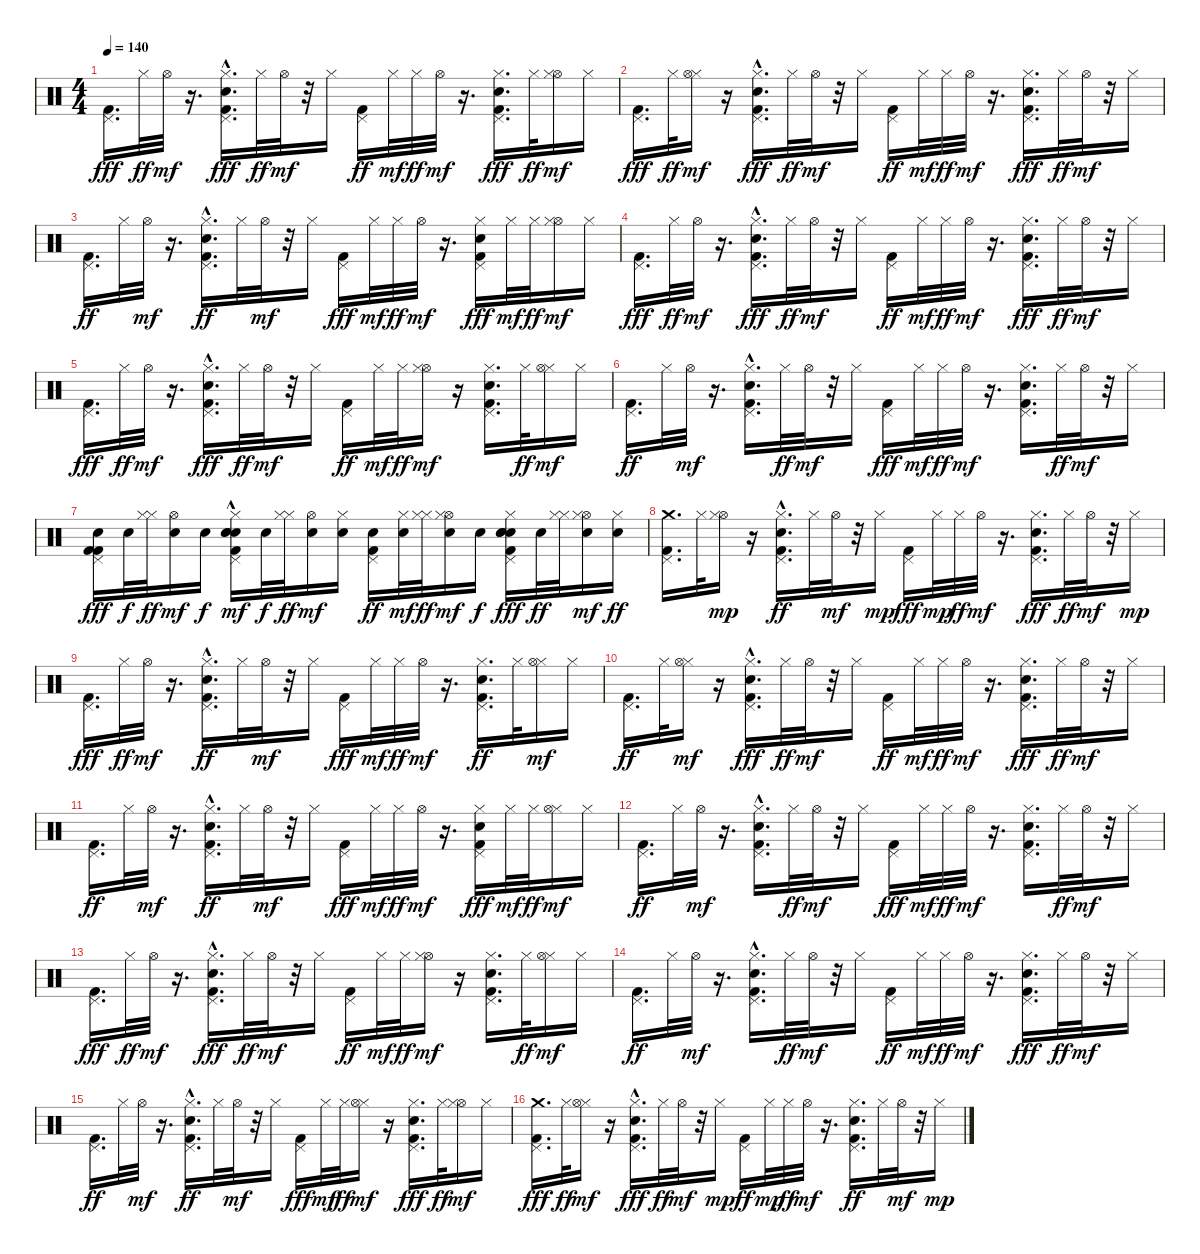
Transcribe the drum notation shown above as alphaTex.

\track "" {instrument percussion}
\staff {score}
\articulation defaults
\ts (4 4)
\tempo 140
\clef neutral
\ks c
("Pedal Hi-Hat (hit)" "Kick (hit) 2").16{d dy fff} "Hi-Hat (closed)".32{dy ff} "Hi-Hat (open)".32{dy mf} r.16{d} ("Hi-Hat (closed)" "Pedal Hi-Hat (hit)" "Kick (hit) 2" "Hand Clap (hit)"{hac}).16{d dy fff} "Hi-Hat (closed)".32{dy ff} "Hi-Hat (open)".32{dy mf} r.32 "Hi-Hat (closed)".16 ("Kick (hit) 2" "Pedal Hi-Hat (hit)").16{dy ff} "Hi-Hat (closed)".32{dy mf} "Hi-Hat (closed)".32{dy ff} "Hi-Hat (open)".32{dy mf} r.16{d} ("Hi-Hat (closed)" "Pedal Hi-Hat (hit)" "Kick (hit) 2" "Hand Clap (hit)").16{d dy fff} "Hi-Hat (closed)".32{dy ff} ("Hi-Hat (open)" "Hi-Hat (closed)").16{dy mf} "Hi-Hat (closed)".16 |
("Pedal Hi-Hat (hit)" "Kick (hit) 2").16{d dy fff} "Hi-Hat (closed)".32{dy ff} ("Hi-Hat (closed)" "Hi-Hat (open)").16{dy mf} r.16 ("Hi-Hat (closed)" "Pedal Hi-Hat (hit)" "Hand Clap (hit)"{hac} "Kick (hit) 2").16{d dy fff} "Hi-Hat (closed)".32{dy ff} "Hi-Hat (open)".32{dy mf} r.32 "Hi-Hat (closed)".16 ("Kick (hit) 2" "Pedal Hi-Hat (hit)").16{dy ff} "Hi-Hat (closed)".32{dy mf} "Hi-Hat (closed)".32{dy ff} "Hi-Hat (open)".32{dy mf} r.16{d} ("Hi-Hat (closed)" "Pedal Hi-Hat (hit)" "Hand Clap (hit)" "Kick (hit) 2").16{d dy fff} "Hi-Hat (closed)".32{dy ff} "Hi-Hat (open)".32{dy mf} r.32 "Hi-Hat (closed)".16 |
("Kick (hit) 2" "Pedal Hi-Hat (hit)").16{d dy ff} "Hi-Hat (closed)".32 "Hi-Hat (open)".32{dy mf} r.16{d} ("Hand Clap (hit)"{hac} "Hi-Hat (closed)" "Kick (hit) 2" "Pedal Hi-Hat (hit)").16{d dy ff} "Hi-Hat (closed)".32 "Hi-Hat (open)".32{dy mf} r.32 "Hi-Hat (closed)".16 ("Pedal Hi-Hat (hit)" "Kick (hit) 2").16{dy fff} "Hi-Hat (closed)".32{dy mf} "Hi-Hat (closed)".32{dy ff} "Hi-Hat (open)".32{dy mf} r.16{d} ("Hi-Hat (closed)" "Pedal Hi-Hat (hit)" "Hand Clap (hit)" "Kick (hit) 2").16{dy fff} "Hi-Hat (closed)".32{dy mf} "Hi-Hat (closed)".32{dy ff} ("Hi-Hat (open)" "Hi-Hat (closed)").16{dy mf} "Hi-Hat (closed)".16 |
("Pedal Hi-Hat (hit)" "Kick (hit) 2").16{d dy fff} "Hi-Hat (closed)".32{dy ff} "Hi-Hat (open)".32{dy mf} r.16{d} ("Pedal Hi-Hat (hit)" "Hi-Hat (closed)" "Kick (hit) 2" "Hand Clap (hit)"{hac}).16{d dy fff} "Hi-Hat (closed)".32{dy ff} "Hi-Hat (open)".32{dy mf} r.32 "Hi-Hat (closed)".16 ("Kick (hit) 2" "Pedal Hi-Hat (hit)").16{dy ff} "Hi-Hat (closed)".32{dy mf} "Hi-Hat (closed)".32{dy ff} "Hi-Hat (open)".32{dy mf} r.16{d} ("Pedal Hi-Hat (hit)" "Hi-Hat (closed)" "Kick (hit) 2" "Hand Clap (hit)").16{d dy fff} "Hi-Hat (closed)".32{dy ff} "Hi-Hat (open)".32{dy mf} r.32 "Hi-Hat (closed)".16 |
("Pedal Hi-Hat (hit)" "Kick (hit) 2").16{d dy fff} "Hi-Hat (closed)".32{dy ff} "Hi-Hat (open)".32{dy mf} r.16{d} ("Pedal Hi-Hat (hit)" "Hi-Hat (closed)" "Kick (hit) 2" "Hand Clap (hit)"{hac}).16{d dy fff} "Hi-Hat (closed)".32{dy ff} "Hi-Hat (open)".32{dy mf} r.32 "Hi-Hat (closed)".16 ("Kick (hit) 2" "Pedal Hi-Hat (hit)").16{dy ff} "Hi-Hat (closed)".32{dy mf} "Hi-Hat (closed)".32{dy ff} ("Hi-Hat (open)" "Hi-Hat (closed)").16{dy mf} r.16 ("Hand Clap (hit)" "Pedal Hi-Hat (hit)" "Kick (hit) 2" "Hi-Hat (closed)").16{d} "Hi-Hat (closed)".32{dy ff} ("Hi-Hat (closed)" "Hi-Hat (open)").16{dy mf} "Hi-Hat (closed)".16 |
("Kick (hit) 2" "Pedal Hi-Hat (hit)").16{d dy ff} "Hi-Hat (closed)".32 "Hi-Hat (open)".32{dy mf} r.16{d} ("Hand Clap (hit)"{hac} "Pedal Hi-Hat (hit)" "Kick (hit) 2" "Hi-Hat (closed)").16{d} "Hi-Hat (closed)".32{dy ff} "Hi-Hat (open)".32{dy mf} r.32 "Hi-Hat (closed)".16 ("Pedal Hi-Hat (hit)" "Kick (hit) 2").16{dy fff} "Hi-Hat (closed)".32{dy mf} "Hi-Hat (closed)".32{dy ff} "Hi-Hat (open)".32{dy mf} r.16{d} ("Hand Clap (hit)" "Pedal Hi-Hat (hit)" "Kick (hit) 2" "Hi-Hat (closed)").16{d} "Hi-Hat (closed)".32{dy ff} "Hi-Hat (open)".32{dy mf} r.32 "Hi-Hat (closed)".16 |
("Electric Snare (hit)" "Pedal Hi-Hat (hit)" "Kick (hit) 2" "Kick (hit) 2").16{dy fff} "Electric Snare (hit)".32{dy f} ("Hi-Hat (closed)" "Hi-Hat (closed)").32{dy ff} ("Hi-Hat (open)" "Electric Snare (hit)").16{dy mf} "Electric Snare (hit)".16{dy f} ("Electric Snare (hit)" "Snare (hit) 2" "Pedal Hi-Hat (hit)" "Kick (hit) 2" "Hi-Hat (closed)" "Hand Clap (hit)"{hac}).16{dy mf} "Electric Snare (hit)".32{dy f} ("Hi-Hat (closed)" "Hi-Hat (closed)").32{dy ff} ("Hi-Hat (open)" "Electric Snare (hit)").16{dy mf} ("Hi-Hat (closed)" "Electric Snare (hit)").16 ("Pedal Hi-Hat (hit)" "Kick (hit) 2" "Electric Snare (hit)").16{dy ff} ("Electric Snare (hit)" "Hi-Hat (closed)").32{dy mf} ("Hi-Hat (closed)" "Hi-Hat (closed)").32{dy ff} ("Electric Snare (hit)" "Hi-Hat (open)" "Hi-Hat (closed)").16{dy mf} "Electric Snare (hit)".16{dy f} ("Electric Snare (hit)" "Hand Clap (hit)" "Pedal Hi-Hat (hit)" "Hand Clap (hit)" "Hi-Hat (closed)" "Kick (hit) 2").16{dy fff} "Electric Snare (hit)".32{dy ff} ("Hi-Hat (closed)" "Hi-Hat (closed)").32 ("Electric Snare (hit)" "Hi-Hat (open)" "Hi-Hat (closed)").16{dy mf} ("Hi-Hat (closed)" "Electric Snare (hit)").16{dy ff} |
("Kick (hit) 2" "Crash medium (hit)" "Pedal Hi-Hat (hit)").16{d} "Hi-Hat (closed)".32 ("Hi-Hat (open)" "Hi-Hat (closed)").16{dy mp} r.16 ("Kick (hit) 2" "Hi-Hat (closed)" "Hand Clap (hit)"{hac} "Pedal Hi-Hat (hit)").16{d dy ff} "Hi-Hat (closed)".32 "Hi-Hat (open)".32{dy mf} r.32 "Hi-Hat (closed)".16{dy mp} ("Pedal Hi-Hat (hit)" "Kick (hit) 2").16{dy fff} "Hi-Hat (closed)".32{dy mp} "Hi-Hat (closed)".32{dy ff} "Hi-Hat (open)".32{dy mf} r.16{d} ("Pedal Hi-Hat (hit)" "Hand Clap (hit)" "Hi-Hat (closed)" "Kick (hit) 2").16{d dy fff} "Hi-Hat (closed)".32{dy ff} "Hi-Hat (open)".32{dy mf} r.32 "Hi-Hat (closed)".16{dy mp} |
("Pedal Hi-Hat (hit)" "Kick (hit) 2").16{d dy fff} "Hi-Hat (closed)".32{dy ff} "Hi-Hat (open)".32{dy mf} r.16{d} ("Hand Clap (hit)"{hac} "Hi-Hat (closed)" "Kick (hit) 2" "Pedal Hi-Hat (hit)").16{d dy ff} "Hi-Hat (closed)".32 "Hi-Hat (open)".32{dy mf} r.32 "Hi-Hat (closed)".16 ("Pedal Hi-Hat (hit)" "Kick (hit) 2").16{dy fff} "Hi-Hat (closed)".32{dy mf} "Hi-Hat (closed)".32{dy ff} "Hi-Hat (open)".32{dy mf} r.16{d} ("Hand Clap (hit)" "Hi-Hat (closed)" "Kick (hit) 2" "Pedal Hi-Hat (hit)").16{d dy ff} "Hi-Hat (closed)".32 ("Hi-Hat (closed)" "Hi-Hat (open)").16{dy mf} "Hi-Hat (closed)".16 |
("Kick (hit) 2" "Pedal Hi-Hat (hit)").16{d dy ff} "Hi-Hat (closed)".32 ("Hi-Hat (closed)" "Hi-Hat (open)").16{dy mf} r.16 ("Hi-Hat (closed)" "Pedal Hi-Hat (hit)" "Hand Clap (hit)"{hac} "Kick (hit) 2").16{d dy fff} "Hi-Hat (closed)".32{dy ff} "Hi-Hat (open)".32{dy mf} r.32 "Hi-Hat (closed)".16 ("Kick (hit) 2" "Pedal Hi-Hat (hit)").16{dy ff} "Hi-Hat (closed)".32{dy mf} "Hi-Hat (closed)".32{dy ff} "Hi-Hat (open)".32{dy mf} r.16{d} ("Hi-Hat (closed)" "Pedal Hi-Hat (hit)" "Hand Clap (hit)" "Kick (hit) 2").16{d dy fff} "Hi-Hat (closed)".32{dy ff} "Hi-Hat (open)".32{dy mf} r.32 "Hi-Hat (closed)".16 |
("Kick (hit) 2" "Pedal Hi-Hat (hit)").16{d dy ff} "Hi-Hat (closed)".32 "Hi-Hat (open)".32{dy mf} r.16{d} ("Hand Clap (hit)"{hac} "Hi-Hat (closed)" "Kick (hit) 2" "Pedal Hi-Hat (hit)").16{d dy ff} "Hi-Hat (closed)".32 "Hi-Hat (open)".32{dy mf} r.32 "Hi-Hat (closed)".16 ("Pedal Hi-Hat (hit)" "Kick (hit) 2").16{dy fff} "Hi-Hat (closed)".32{dy mf} "Hi-Hat (closed)".32{dy ff} "Hi-Hat (open)".32{dy mf} r.16{d} ("Hi-Hat (closed)" "Pedal Hi-Hat (hit)" "Hand Clap (hit)" "Kick (hit) 2").16{dy fff} "Hi-Hat (closed)".32{dy mf} "Hi-Hat (closed)".32{dy ff} ("Hi-Hat (closed)" "Hi-Hat (open)").16{dy mf} "Hi-Hat (closed)".16 |
("Kick (hit) 2" "Pedal Hi-Hat (hit)").16{d dy ff} "Hi-Hat (closed)".32 "Hi-Hat (open)".32{dy mf} r.16{d} ("Hand Clap (hit)"{hac} "Pedal Hi-Hat (hit)" "Kick (hit) 2" "Hi-Hat (closed)").16{d} "Hi-Hat (closed)".32{dy ff} "Hi-Hat (open)".32{dy mf} r.32 "Hi-Hat (closed)".16 ("Pedal Hi-Hat (hit)" "Kick (hit) 2").16{dy fff} "Hi-Hat (closed)".32{dy mf} "Hi-Hat (closed)".32{dy ff} "Hi-Hat (open)".32{dy mf} r.16{d} ("Hand Clap (hit)" "Pedal Hi-Hat (hit)" "Kick (hit) 2" "Hi-Hat (closed)").16{d} "Hi-Hat (closed)".32{dy ff} "Hi-Hat (open)".32{dy mf} r.32 "Hi-Hat (closed)".16 |
("Pedal Hi-Hat (hit)" "Kick (hit) 2").16{d dy fff} "Hi-Hat (closed)".32{dy ff} "Hi-Hat (open)".32{dy mf} r.16{d} ("Pedal Hi-Hat (hit)" "Hi-Hat (closed)" "Kick (hit) 2" "Hand Clap (hit)"{hac}).16{d dy fff} "Hi-Hat (closed)".32{dy ff} "Hi-Hat (open)".32{dy mf} r.32 "Hi-Hat (closed)".16 ("Kick (hit) 2" "Pedal Hi-Hat (hit)").16{dy ff} "Hi-Hat (closed)".32{dy mf} "Hi-Hat (closed)".32{dy ff} ("Hi-Hat (open)" "Hi-Hat (closed)").16{dy mf} r.16 ("Hand Clap (hit)" "Pedal Hi-Hat (hit)" "Kick (hit) 2" "Hi-Hat (closed)").16{d} "Hi-Hat (closed)".32{dy ff} ("Hi-Hat (closed)" "Hi-Hat (open)").16{dy mf} "Hi-Hat (closed)".16 |
("Kick (hit) 2" "Pedal Hi-Hat (hit)").16{d dy ff} "Hi-Hat (closed)".32 "Hi-Hat (open)".32{dy mf} r.16{d} ("Hand Clap (hit)"{hac} "Pedal Hi-Hat (hit)" "Kick (hit) 2" "Hi-Hat (closed)").16{d} "Hi-Hat (closed)".32{dy ff} "Hi-Hat (open)".32{dy mf} r.32 "Hi-Hat (closed)".16 ("Kick (hit) 2" "Pedal Hi-Hat (hit)").16{dy ff} "Hi-Hat (closed)".32{dy mf} "Hi-Hat (closed)".32{dy ff} "Hi-Hat (open)".32{dy mf} r.16{d} ("Pedal Hi-Hat (hit)" "Hi-Hat (closed)" "Hand Clap (hit)" "Kick (hit) 2").16{d dy fff} "Hi-Hat (closed)".32{dy ff} "Hi-Hat (open)".32{dy mf} r.32 "Hi-Hat (closed)".16 |
("Kick (hit) 2" "Pedal Hi-Hat (hit)").16{d dy ff} "Hi-Hat (closed)".32 "Hi-Hat (open)".32{dy mf} r.16{d} ("Kick (hit) 2" "Hi-Hat (closed)" "Hand Clap (hit)"{hac} "Pedal Hi-Hat (hit)").16{d dy ff} "Hi-Hat (closed)".32 "Hi-Hat (open)".32{dy mf} r.32 "Hi-Hat (closed)".16 ("Pedal Hi-Hat (hit)" "Kick (hit) 2").16{dy fff} "Hi-Hat (closed)".32{dy mf} "Hi-Hat (closed)".32{dy ff} ("Hi-Hat (closed)" "Hi-Hat (open)").16{dy mf} r.16 ("Pedal Hi-Hat (hit)" "Hi-Hat (closed)" "Hand Clap (hit)" "Kick (hit) 2").16{d dy fff} "Hi-Hat (closed)".32{dy ff} ("Hi-Hat (open)" "Hi-Hat (closed)").16{dy mf} "Hi-Hat (closed)".16 |
("Crash medium (hit)" "Pedal Hi-Hat (hit)" "Kick (hit) 2").16{d dy fff} "Hi-Hat (closed)".32{dy ff} ("Hi-Hat (closed)" "Hi-Hat (open)").16{dy mf} r.16 ("Pedal Hi-Hat (hit)" "Hi-Hat (closed)" "Hand Clap (hit)"{hac} "Kick (hit) 2").16{d dy fff} "Hi-Hat (closed)".32{dy ff} "Hi-Hat (open)".32{dy mf} r.32 "Hi-Hat (closed)".16{dy mp} ("Kick (hit) 2" "Pedal Hi-Hat (hit)").16{dy ff} "Hi-Hat (closed)".32{dy mp} "Hi-Hat (closed)".32{dy ff} "Hi-Hat (open)".32{dy mf} r.16{d} ("Kick (hit) 2" "Hand Clap (hit)" "Hi-Hat (closed)" "Pedal Hi-Hat (hit)").16{d dy ff} "Hi-Hat (closed)".32 "Hi-Hat (open)".32{dy mf} r.32 "Hi-Hat (closed)".16{dy mp}
